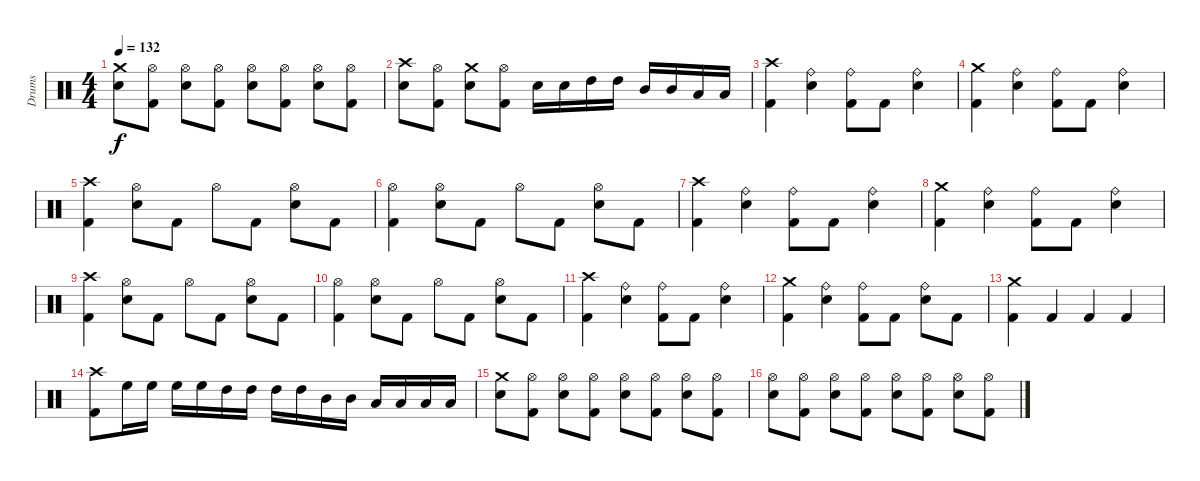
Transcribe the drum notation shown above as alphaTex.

\track ("Drums" "Drums") {instrument percussion}
\staff {score}
\articulation defaults
\ts (4 4)
\tempo 132
\clef neutral
\ks c
("Crash medium (hit)" "Electric Snare (hit)").8{dy f} ("Hi-Hat (open)" "Kick (hit) 2").8 ("Hi-Hat (open)" "Electric Snare (hit)").8 ("Hi-Hat (open)" "Kick (hit) 2").8 ("Hi-Hat (open)" "Electric Snare (hit)").8 ("Hi-Hat (open)" "Kick (hit) 2").8 ("Hi-Hat (open)" "Electric Snare (hit)").8 ("Hi-Hat (open)" "Kick (hit) 2").8 |
("Crash high (hit)" "Electric Snare (hit)").8 ("Hi-Hat (open)" "Kick (hit) 2").8 ("Crash medium (hit)" "Electric Snare (hit)").8 ("Hi-Hat (open)" "Kick (hit) 2").8 "Electric Snare (hit)".16 "Electric Snare (hit)".16 "High Tom (hit)".16 "High Tom (hit)".16 "Mid Tom (hit)".16 "Mid Tom (hit)".16 "Low Tom (hit)".16 "Low Tom (hit)".16 |
("Crash high (hit)" "Kick (hit) 2").4 ("Ride (bell)" "Electric Snare (hit)").4 ("Ride (bell)" "Kick (hit) 2").8 "Kick (hit) 2".8 ("Ride (bell)" "Electric Snare (hit)").4 |
("Crash medium (hit)" "Kick (hit) 2").4 ("Ride (bell)" "Electric Snare (hit)").4 ("Ride (bell)" "Kick (hit) 2").8 "Kick (hit) 2".8 ("Ride (bell)" "Electric Snare (hit)").4 |
("Crash high (hit)" "Kick (hit) 2").4 ("Hi-Hat (open)" "Electric Snare (hit)").8 "Kick (hit) 2".8 "Hi-Hat (open)".8 "Kick (hit) 2".8 ("Hi-Hat (open)" "Electric Snare (hit)").8 "Kick (hit) 2".8 |
("Hi-Hat (open)" "Kick (hit) 2").4 ("Hi-Hat (open)" "Electric Snare (hit)").8 "Kick (hit) 2".8 "Hi-Hat (open)".8 "Kick (hit) 2".8 ("Hi-Hat (open)" "Electric Snare (hit)").8 "Kick (hit) 2".8 |
("Crash high (hit)" "Kick (hit) 2").4 ("Ride (bell)" "Electric Snare (hit)").4 ("Ride (bell)" "Kick (hit) 2").8 "Kick (hit) 2".8 ("Ride (bell)" "Electric Snare (hit)").4 |
("Crash medium (hit)" "Kick (hit) 2").4 ("Ride (bell)" "Electric Snare (hit)").4 ("Ride (bell)" "Kick (hit) 2").8 "Kick (hit) 2".8 ("Ride (bell)" "Electric Snare (hit)").4 |
("Crash high (hit)" "Kick (hit) 2").4 ("Hi-Hat (open)" "Electric Snare (hit)").8 "Kick (hit) 2".8 "Hi-Hat (open)".8 "Kick (hit) 2".8 ("Hi-Hat (open)" "Electric Snare (hit)").8 "Kick (hit) 2".8 |
("Hi-Hat (open)" "Kick (hit) 2").4 ("Hi-Hat (open)" "Electric Snare (hit)").8 "Kick (hit) 2".8 "Hi-Hat (open)".8 "Kick (hit) 2".8 ("Hi-Hat (open)" "Electric Snare (hit)").8 "Kick (hit) 2".8 |
("Crash high (hit)" "Kick (hit) 2").4 ("Ride (bell)" "Electric Snare (hit)").4 ("Ride (bell)" "Kick (hit) 2").8 "Kick (hit) 2".8 ("Ride (bell)" "Electric Snare (hit)").4 |
("Crash medium (hit)" "Kick (hit) 2").4 ("Ride (bell)" "Electric Snare (hit)").4 ("Ride (bell)" "Kick (hit) 2").8 "Kick (hit) 2".8 ("Ride (bell)" "Electric Snare (hit)").8 "Kick (hit) 2".8 |
("Crash medium (hit)" "Kick (hit) 2").4 "Kick (hit) 2".4 "Kick (hit) 2".4 "Kick (hit) 2".4 |
("Crash high (hit)" "Kick (hit) 2").8 "High Floor Tom (hit)".16 "High Floor Tom (hit)".16 "High Floor Tom (hit)".16 "High Floor Tom (hit)".16 "High Tom (hit)".16 "High Tom (hit)".16 "High Tom (hit)".16 "High Tom (hit)".16 "Mid Tom (hit)".16 "Mid Tom (hit)".16 "Low Tom (hit)".16 "Low Tom (hit)".16 "Low Tom (hit)".16 "Low Tom (hit)".16 |
("Crash medium (hit)" "Electric Snare (hit)").8 ("Hi-Hat (open)" "Kick (hit) 2").8 ("Hi-Hat (open)" "Electric Snare (hit)").8 ("Hi-Hat (open)" "Kick (hit) 2").8 ("Hi-Hat (open)" "Electric Snare (hit)").8 ("Hi-Hat (open)" "Kick (hit) 2").8 ("Hi-Hat (open)" "Electric Snare (hit)").8 ("Hi-Hat (open)" "Kick (hit) 2").8 |
("Hi-Hat (open)" "Electric Snare (hit)").8 ("Hi-Hat (open)" "Kick (hit) 2").8 ("Hi-Hat (open)" "Electric Snare (hit)").8 ("Hi-Hat (open)" "Kick (hit) 2").8 ("Hi-Hat (open)" "Electric Snare (hit)").8 ("Hi-Hat (open)" "Kick (hit) 2").8 ("Hi-Hat (open)" "Electric Snare (hit)").8 ("Hi-Hat (open)" "Kick (hit) 2").8
